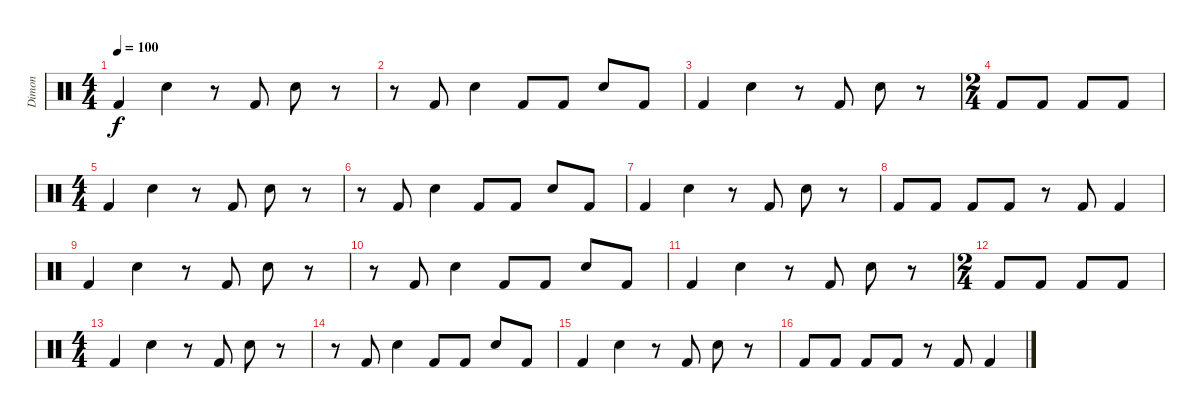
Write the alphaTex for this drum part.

\track ("Dimon" "Dimon") {instrument percussion}
\staff {score}
\articulation defaults
\ts (4 4)
\tempo 100
\clef neutral
\ks c "Kick (hit) 2".4{dy f} "Electric Snare (hit)".4
r.8 "Kick (hit) 2".8 "Electric Snare (hit)".8 r.8 |
r.8 "Kick (hit) 2".8 "Electric Snare (hit)".4 "Kick (hit) 2".8 "Kick (hit) 2".8 "Electric Snare (hit)".8 "Kick (hit) 2".8 |
"Kick (hit) 2".4 "Electric Snare (hit)".4 r.8 "Kick (hit) 2".8 "Electric Snare (hit)".8 r.8 |
\ts (2 4)
"Kick (hit) 2".8 "Kick (hit) 2".8 "Kick (hit) 2".8 "Kick (hit) 2".8 |
\ts (4 4)
"Kick (hit) 2".4 "Electric Snare (hit)".4 r.8 "Kick (hit) 2".8 "Electric Snare (hit)".8 r.8 |
r.8 "Kick (hit) 2".8 "Electric Snare (hit)".4 "Kick (hit) 2".8 "Kick (hit) 2".8 "Electric Snare (hit)".8 "Kick (hit) 2".8 |
"Kick (hit) 2".4 "Electric Snare (hit)".4 r.8 "Kick (hit) 2".8 "Electric Snare (hit)".8 r.8 |
"Kick (hit) 2".8 "Kick (hit) 2".8 "Kick (hit) 2".8 "Kick (hit) 2".8 r.8 "Kick (hit) 2".8 "Kick (hit) 2".4 |
"Kick (hit) 2".4 "Electric Snare (hit)".4 r.8 "Kick (hit) 2".8 "Electric Snare (hit)".8 r.8 |
r.8 "Kick (hit) 2".8 "Electric Snare (hit)".4 "Kick (hit) 2".8 "Kick (hit) 2".8 "Electric Snare (hit)".8 "Kick (hit) 2".8 |
"Kick (hit) 2".4 "Electric Snare (hit)".4 r.8 "Kick (hit) 2".8 "Electric Snare (hit)".8 r.8 |
\ts (2 4)
"Kick (hit) 2".8 "Kick (hit) 2".8 "Kick (hit) 2".8 "Kick (hit) 2".8 |
\ts (4 4)
"Kick (hit) 2".4 "Electric Snare (hit)".4 r.8 "Kick (hit) 2".8 "Electric Snare (hit)".8 r.8 |
r.8 "Kick (hit) 2".8 "Electric Snare (hit)".4 "Kick (hit) 2".8 "Kick (hit) 2".8 "Electric Snare (hit)".8 "Kick (hit) 2".8 |
"Kick (hit) 2".4 "Electric Snare (hit)".4 r.8 "Kick (hit) 2".8 "Electric Snare (hit)".8 r.8 |
"Kick (hit) 2".8 "Kick (hit) 2".8 "Kick (hit) 2".8 "Kick (hit) 2".8 r.8 "Kick (hit) 2".8 "Kick (hit) 2".4
